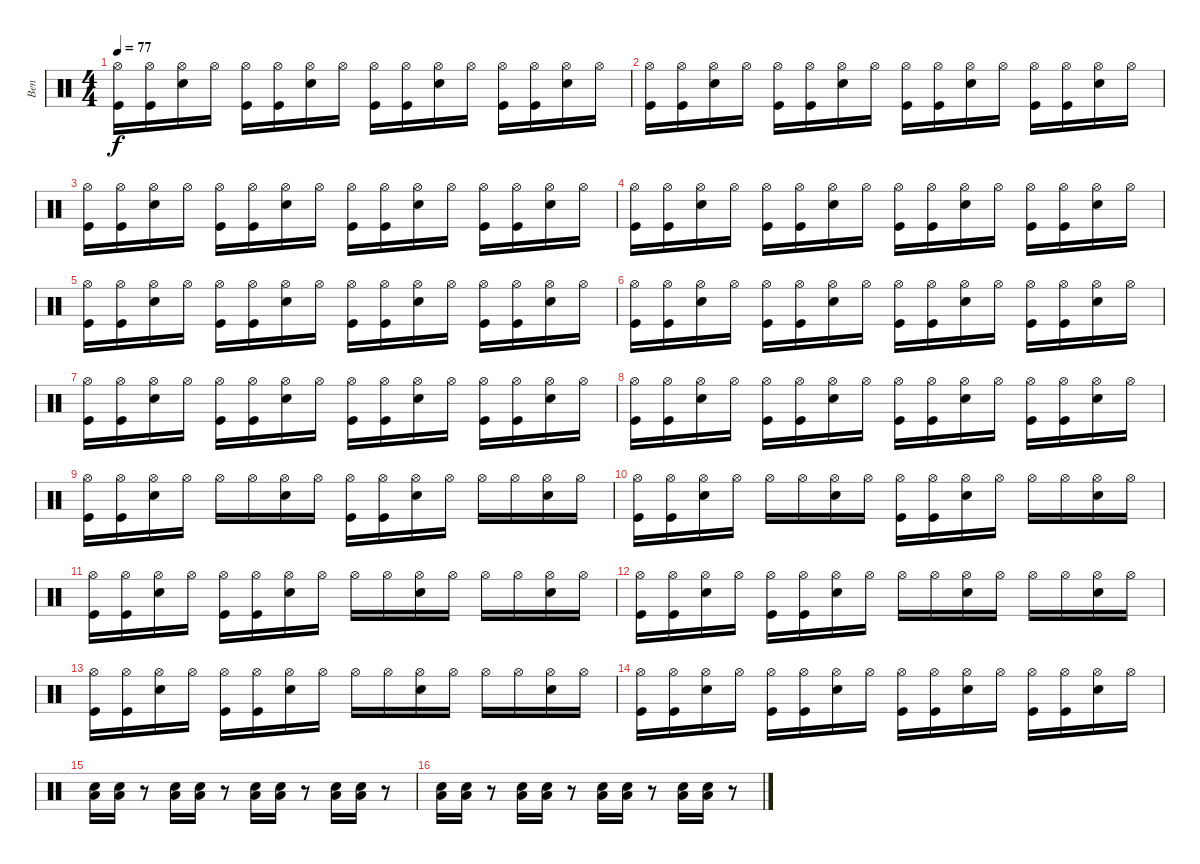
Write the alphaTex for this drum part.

\track ("Ben" "Ben") {instrument percussion}
\staff {score}
\articulation defaults
\ts (4 4)
\tempo 77
\clef neutral
\ks c
("Hi-Hat (open)" "Kick (hit)").16{dy f} ("Hi-Hat (open)" "Kick (hit)").16 ("Hi-Hat (open)" "Snare (hit) 2").16 "Hi-Hat (open)".16 ("Hi-Hat (open)" "Kick (hit)").16 ("Hi-Hat (open)" "Kick (hit)").16 ("Hi-Hat (open)" "Snare (hit) 2").16 "Hi-Hat (open)".16 ("Hi-Hat (open)" "Kick (hit)").16 ("Hi-Hat (open)" "Kick (hit)").16 ("Hi-Hat (open)" "Snare (hit) 2").16 "Hi-Hat (open)".16 ("Hi-Hat (open)" "Kick (hit)").16 ("Hi-Hat (open)" "Kick (hit)").16 ("Hi-Hat (open)" "Snare (hit) 2").16 "Hi-Hat (open)".16 |
("Hi-Hat (open)" "Kick (hit)").16 ("Hi-Hat (open)" "Kick (hit)").16 ("Hi-Hat (open)" "Snare (hit) 2").16 "Hi-Hat (open)".16 ("Hi-Hat (open)" "Kick (hit)").16 ("Hi-Hat (open)" "Kick (hit)").16 ("Hi-Hat (open)" "Snare (hit) 2").16 "Hi-Hat (open)".16 ("Hi-Hat (open)" "Kick (hit)").16 ("Hi-Hat (open)" "Kick (hit)").16 ("Hi-Hat (open)" "Snare (hit) 2").16 "Hi-Hat (open)".16 ("Hi-Hat (open)" "Kick (hit)").16 ("Hi-Hat (open)" "Kick (hit)").16 ("Hi-Hat (open)" "Snare (hit) 2").16 "Hi-Hat (open)".16 |
("Hi-Hat (open)" "Kick (hit)").16 ("Hi-Hat (open)" "Kick (hit)").16 ("Hi-Hat (open)" "Snare (hit) 2").16 "Hi-Hat (open)".16 ("Hi-Hat (open)" "Kick (hit)").16 ("Hi-Hat (open)" "Kick (hit)").16 ("Hi-Hat (open)" "Snare (hit) 2").16 "Hi-Hat (open)".16 ("Hi-Hat (open)" "Kick (hit)").16 ("Hi-Hat (open)" "Kick (hit)").16 ("Hi-Hat (open)" "Snare (hit) 2").16 "Hi-Hat (open)".16 ("Hi-Hat (open)" "Kick (hit)").16 ("Hi-Hat (open)" "Kick (hit)").16 ("Hi-Hat (open)" "Snare (hit) 2").16 "Hi-Hat (open)".16 |
("Hi-Hat (open)" "Kick (hit)").16 ("Hi-Hat (open)" "Kick (hit)").16 ("Hi-Hat (open)" "Snare (hit) 2").16 "Hi-Hat (open)".16 ("Hi-Hat (open)" "Kick (hit)").16 ("Hi-Hat (open)" "Kick (hit)").16 ("Hi-Hat (open)" "Snare (hit) 2").16 "Hi-Hat (open)".16 ("Hi-Hat (open)" "Kick (hit)").16 ("Hi-Hat (open)" "Kick (hit)").16 ("Hi-Hat (open)" "Snare (hit) 2").16 "Hi-Hat (open)".16 ("Hi-Hat (open)" "Kick (hit)").16 ("Hi-Hat (open)" "Kick (hit)").16 ("Hi-Hat (open)" "Snare (hit) 2").16 "Hi-Hat (open)".16 |
("Hi-Hat (open)" "Kick (hit)").16 ("Hi-Hat (open)" "Kick (hit)").16 ("Hi-Hat (open)" "Snare (hit) 2").16 "Hi-Hat (open)".16 ("Hi-Hat (open)" "Kick (hit)").16 ("Hi-Hat (open)" "Kick (hit)").16 ("Hi-Hat (open)" "Snare (hit) 2").16 "Hi-Hat (open)".16 ("Hi-Hat (open)" "Kick (hit)").16 ("Hi-Hat (open)" "Kick (hit)").16 ("Hi-Hat (open)" "Snare (hit) 2").16 "Hi-Hat (open)".16 ("Hi-Hat (open)" "Kick (hit)").16 ("Hi-Hat (open)" "Kick (hit)").16 ("Hi-Hat (open)" "Snare (hit) 2").16 "Hi-Hat (open)".16 |
("Hi-Hat (open)" "Kick (hit)").16 ("Hi-Hat (open)" "Kick (hit)").16 ("Hi-Hat (open)" "Snare (hit) 2").16 "Hi-Hat (open)".16 ("Hi-Hat (open)" "Kick (hit)").16 ("Hi-Hat (open)" "Kick (hit)").16 ("Hi-Hat (open)" "Snare (hit) 2").16 "Hi-Hat (open)".16 ("Hi-Hat (open)" "Kick (hit)").16 ("Hi-Hat (open)" "Kick (hit)").16 ("Hi-Hat (open)" "Snare (hit) 2").16 "Hi-Hat (open)".16 ("Hi-Hat (open)" "Kick (hit)").16 ("Hi-Hat (open)" "Kick (hit)").16 ("Hi-Hat (open)" "Snare (hit) 2").16 "Hi-Hat (open)".16 |
("Hi-Hat (open)" "Kick (hit)").16 ("Hi-Hat (open)" "Kick (hit)").16 ("Hi-Hat (open)" "Snare (hit) 2").16 "Hi-Hat (open)".16 ("Hi-Hat (open)" "Kick (hit)").16 ("Hi-Hat (open)" "Kick (hit)").16 ("Hi-Hat (open)" "Snare (hit) 2").16 "Hi-Hat (open)".16 ("Hi-Hat (open)" "Kick (hit)").16 ("Hi-Hat (open)" "Kick (hit)").16 ("Hi-Hat (open)" "Snare (hit) 2").16 "Hi-Hat (open)".16 ("Hi-Hat (open)" "Kick (hit)").16 ("Hi-Hat (open)" "Kick (hit)").16 ("Hi-Hat (open)" "Snare (hit) 2").16 "Hi-Hat (open)".16 |
("Hi-Hat (open)" "Kick (hit)").16 ("Hi-Hat (open)" "Kick (hit)").16 ("Hi-Hat (open)" "Snare (hit) 2").16 "Hi-Hat (open)".16 ("Hi-Hat (open)" "Kick (hit)").16 ("Hi-Hat (open)" "Kick (hit)").16 ("Hi-Hat (open)" "Snare (hit) 2").16 "Hi-Hat (open)".16 ("Hi-Hat (open)" "Kick (hit)").16 ("Hi-Hat (open)" "Kick (hit)").16 ("Hi-Hat (open)" "Snare (hit) 2").16 "Hi-Hat (open)".16 ("Hi-Hat (open)" "Kick (hit)").16 ("Hi-Hat (open)" "Kick (hit)").16 ("Hi-Hat (open)" "Snare (hit) 2").16 "Hi-Hat (open)".16 |
("Hi-Hat (open)" "Kick (hit)").16 ("Hi-Hat (open)" "Kick (hit)").16 ("Hi-Hat (open)" "Snare (hit) 2").16 "Hi-Hat (open)".16 "Hi-Hat (open)".16 "Hi-Hat (open)".16 ("Hi-Hat (open)" "Snare (hit) 2").16 "Hi-Hat (open)".16 ("Hi-Hat (open)" "Kick (hit)").16 ("Hi-Hat (open)" "Kick (hit)").16 ("Hi-Hat (open)" "Snare (hit) 2").16 "Hi-Hat (open)".16 "Hi-Hat (open)".16 "Hi-Hat (open)".16 ("Hi-Hat (open)" "Snare (hit) 2").16 "Hi-Hat (open)".16 |
("Hi-Hat (open)" "Kick (hit)").16 ("Hi-Hat (open)" "Kick (hit)").16 ("Hi-Hat (open)" "Snare (hit) 2").16 "Hi-Hat (open)".16 "Hi-Hat (open)".16 "Hi-Hat (open)".16 ("Hi-Hat (open)" "Snare (hit) 2").16 "Hi-Hat (open)".16 ("Hi-Hat (open)" "Kick (hit)").16 ("Hi-Hat (open)" "Kick (hit)").16 ("Hi-Hat (open)" "Snare (hit) 2").16 "Hi-Hat (open)".16 "Hi-Hat (open)".16 "Hi-Hat (open)".16 ("Hi-Hat (open)" "Snare (hit) 2").16 "Hi-Hat (open)".16 |
("Hi-Hat (open)" "Kick (hit)").16 ("Hi-Hat (open)" "Kick (hit)").16 ("Hi-Hat (open)" "Snare (hit) 2").16 "Hi-Hat (open)".16 ("Hi-Hat (open)" "Kick (hit)").16 ("Hi-Hat (open)" "Kick (hit)").16 ("Hi-Hat (open)" "Snare (hit) 2").16 "Hi-Hat (open)".16 "Hi-Hat (open)".16 "Hi-Hat (open)".16 ("Hi-Hat (open)" "Snare (hit) 2").16 "Hi-Hat (open)".16 "Hi-Hat (open)".16 "Hi-Hat (open)".16 ("Hi-Hat (open)" "Snare (hit) 2").16 "Hi-Hat (open)".16 |
("Hi-Hat (open)" "Kick (hit)").16 ("Hi-Hat (open)" "Kick (hit)").16 ("Hi-Hat (open)" "Snare (hit) 2").16 "Hi-Hat (open)".16 ("Hi-Hat (open)" "Kick (hit)").16 ("Hi-Hat (open)" "Kick (hit)").16 ("Hi-Hat (open)" "Snare (hit) 2").16 "Hi-Hat (open)".16 "Hi-Hat (open)".16 "Hi-Hat (open)".16 ("Hi-Hat (open)" "Snare (hit) 2").16 "Hi-Hat (open)".16 "Hi-Hat (open)".16 "Hi-Hat (open)".16 ("Hi-Hat (open)" "Snare (hit) 2").16 "Hi-Hat (open)".16 |
("Hi-Hat (open)" "Kick (hit)").16 ("Hi-Hat (open)" "Kick (hit)").16 ("Hi-Hat (open)" "Snare (hit) 2").16 "Hi-Hat (open)".16 ("Hi-Hat (open)" "Kick (hit)").16 ("Hi-Hat (open)" "Kick (hit)").16 ("Hi-Hat (open)" "Snare (hit) 2").16 "Hi-Hat (open)".16 "Hi-Hat (open)".16 "Hi-Hat (open)".16 ("Hi-Hat (open)" "Snare (hit) 2").16 "Hi-Hat (open)".16 "Hi-Hat (open)".16 "Hi-Hat (open)".16 ("Hi-Hat (open)" "Snare (hit) 2").16 "Hi-Hat (open)".16 |
("Hi-Hat (open)" "Kick (hit)").16 ("Hi-Hat (open)" "Kick (hit)").16 ("Hi-Hat (open)" "Snare (hit) 2").16 "Hi-Hat (open)".16 ("Hi-Hat (open)" "Kick (hit)").16 ("Hi-Hat (open)" "Kick (hit)").16 ("Hi-Hat (open)" "Snare (hit) 2").16 "Hi-Hat (open)".16 ("Hi-Hat (open)" "Kick (hit)").16 ("Hi-Hat (open)" "Kick (hit)").16 ("Hi-Hat (open)" "Snare (hit) 2").16 "Hi-Hat (open)".16 ("Hi-Hat (open)" "Kick (hit)").16 ("Hi-Hat (open)" "Kick (hit)").16 ("Hi-Hat (open)" "Snare (hit) 2").16 "Hi-Hat (open)".16 |
("Snare (hit) 2" "Low Floor Tom (hit)").16 ("Snare (hit) 2" "Low Floor Tom (hit)").16 r.8 ("Snare (hit) 2" "Low Floor Tom (hit)").16 ("Snare (hit) 2" "Low Floor Tom (hit)").16 r.8 ("Snare (hit) 2" "Low Floor Tom (hit)").16 ("Snare (hit) 2" "Low Floor Tom (hit)").16 r.8 ("Snare (hit) 2" "Low Floor Tom (hit)").16 ("Snare (hit) 2" "Low Floor Tom (hit)").16 r.8 |
("Snare (hit) 2" "Low Floor Tom (hit)").16 ("Snare (hit) 2" "Low Floor Tom (hit)").16 r.8 ("Snare (hit) 2" "Low Floor Tom (hit)").16 ("Snare (hit) 2" "Low Floor Tom (hit)").16 r.8 ("Snare (hit) 2" "Low Floor Tom (hit)").16 ("Snare (hit) 2" "Low Floor Tom (hit)").16 r.8 ("Snare (hit) 2" "Low Floor Tom (hit)").16 ("Snare (hit) 2" "Low Floor Tom (hit)").16 r.8
